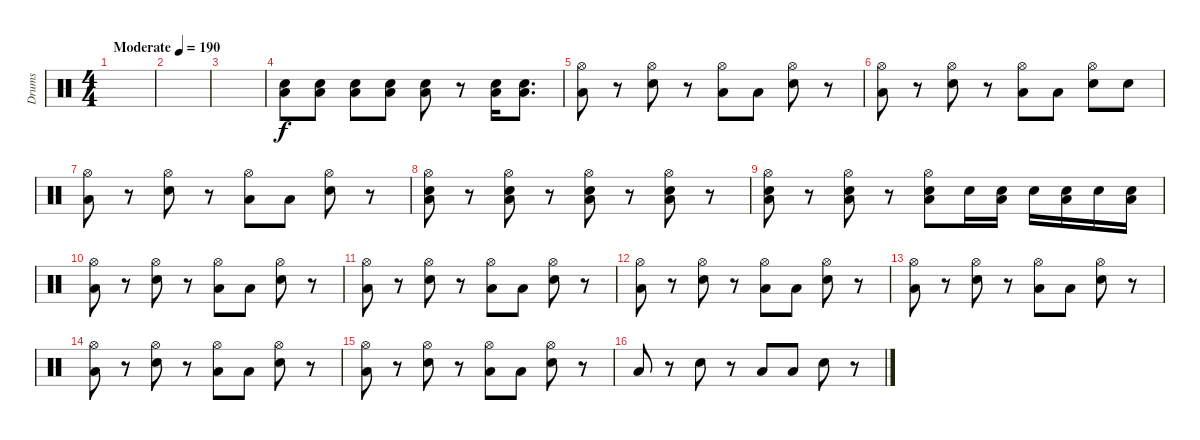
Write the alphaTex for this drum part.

\track ("Drums" "Drums") {instrument percussion}
\staff {score}
\articulation defaults
\ts (4 4)
\tempo (190 "Moderate")
\clef neutral
\ks c
|
|
|
("Electric Snare (hit)" "Low Tom (hit)").8 ("Electric Snare (hit)" "Low Tom (hit)").8 ("Electric Snare (hit)" "Low Tom (hit)").8 ("Electric Snare (hit)" "Low Tom (hit)").8 ("Electric Snare (hit)" "Low Tom (hit)").8 r.8 ("Electric Snare (hit)" "Low Tom (hit)").16 ("Electric Snare (hit)" "Low Tom (hit)").8{d} |
("Low Tom (hit)" "Hi-Hat (open)").8 r.8 ("Electric Snare (hit)" "Hi-Hat (open)").8 r.8 ("Low Tom (hit)" "Hi-Hat (open)").8 "Low Tom (hit)".8 ("Electric Snare (hit)" "Hi-Hat (open)").8 r.8 |
("Low Tom (hit)" "Hi-Hat (open)").8 r.8 ("Electric Snare (hit)" "Hi-Hat (open)").8 r.8 ("Low Tom (hit)" "Hi-Hat (open)").8 "Low Tom (hit)".8 ("Electric Snare (hit)" "Hi-Hat (open)").8 "Electric Snare (hit)".8 |
("Low Tom (hit)" "Hi-Hat (open)").8 r.8 ("Electric Snare (hit)" "Hi-Hat (open)").8 r.8 ("Low Tom (hit)" "Hi-Hat (open)").8 "Low Tom (hit)".8 ("Electric Snare (hit)" "Hi-Hat (open)").8 r.8 |
("Electric Snare (hit)" "Low Tom (hit)" "Hi-Hat (open)").8 r.8 ("Electric Snare (hit)" "Low Tom (hit)" "Hi-Hat (open)").8 r.8 ("Electric Snare (hit)" "Low Tom (hit)" "Hi-Hat (open)").8 r.8 ("Electric Snare (hit)" "Low Tom (hit)" "Hi-Hat (open)").8 r.8 |
("Electric Snare (hit)" "Low Tom (hit)" "Hi-Hat (open)").8 r.8 ("Electric Snare (hit)" "Low Tom (hit)" "Hi-Hat (open)").8 r.8 ("Electric Snare (hit)" "Low Tom (hit)" "Hi-Hat (open)").8 "Electric Snare (hit)".16 ("Electric Snare (hit)" "Low Tom (hit)").16 "Electric Snare (hit)".16 ("Electric Snare (hit)" "Low Tom (hit)").16 "Electric Snare (hit)".16 ("Electric Snare (hit)" "Low Tom (hit)").16 |
("Low Tom (hit)" "Hi-Hat (open)").8 r.8 ("Electric Snare (hit)" "Hi-Hat (open)").8 r.8 ("Low Tom (hit)" "Hi-Hat (open)").8 "Low Tom (hit)".8 ("Electric Snare (hit)" "Hi-Hat (open)").8 r.8 |
("Low Tom (hit)" "Hi-Hat (open)").8 r.8 ("Electric Snare (hit)" "Hi-Hat (open)").8 r.8 ("Low Tom (hit)" "Hi-Hat (open)").8 "Low Tom (hit)".8 ("Electric Snare (hit)" "Hi-Hat (open)").8 r.8 |
("Low Tom (hit)" "Hi-Hat (open)").8 r.8 ("Electric Snare (hit)" "Hi-Hat (open)").8 r.8 ("Low Tom (hit)" "Hi-Hat (open)").8 "Low Tom (hit)".8 ("Electric Snare (hit)" "Hi-Hat (open)").8 r.8 |
("Low Tom (hit)" "Hi-Hat (open)").8 r.8 ("Electric Snare (hit)" "Hi-Hat (open)").8 r.8 ("Low Tom (hit)" "Hi-Hat (open)").8 "Low Tom (hit)".8 ("Electric Snare (hit)" "Hi-Hat (open)").8 r.8 |
("Low Tom (hit)" "Hi-Hat (open)").8 r.8 ("Electric Snare (hit)" "Hi-Hat (open)").8 r.8 ("Low Tom (hit)" "Hi-Hat (open)").8 "Low Tom (hit)".8 ("Electric Snare (hit)" "Hi-Hat (open)").8 r.8 |
("Low Tom (hit)" "Hi-Hat (open)").8 r.8 ("Electric Snare (hit)" "Hi-Hat (open)").8 r.8 ("Low Tom (hit)" "Hi-Hat (open)").8 "Low Tom (hit)".8 ("Electric Snare (hit)" "Hi-Hat (open)").8 r.8 |
"Low Tom (hit)".8 r.8 "Electric Snare (hit)".8 r.8 "Low Tom (hit)".8 "Low Tom (hit)".8 "Electric Snare (hit)".8 r.8
